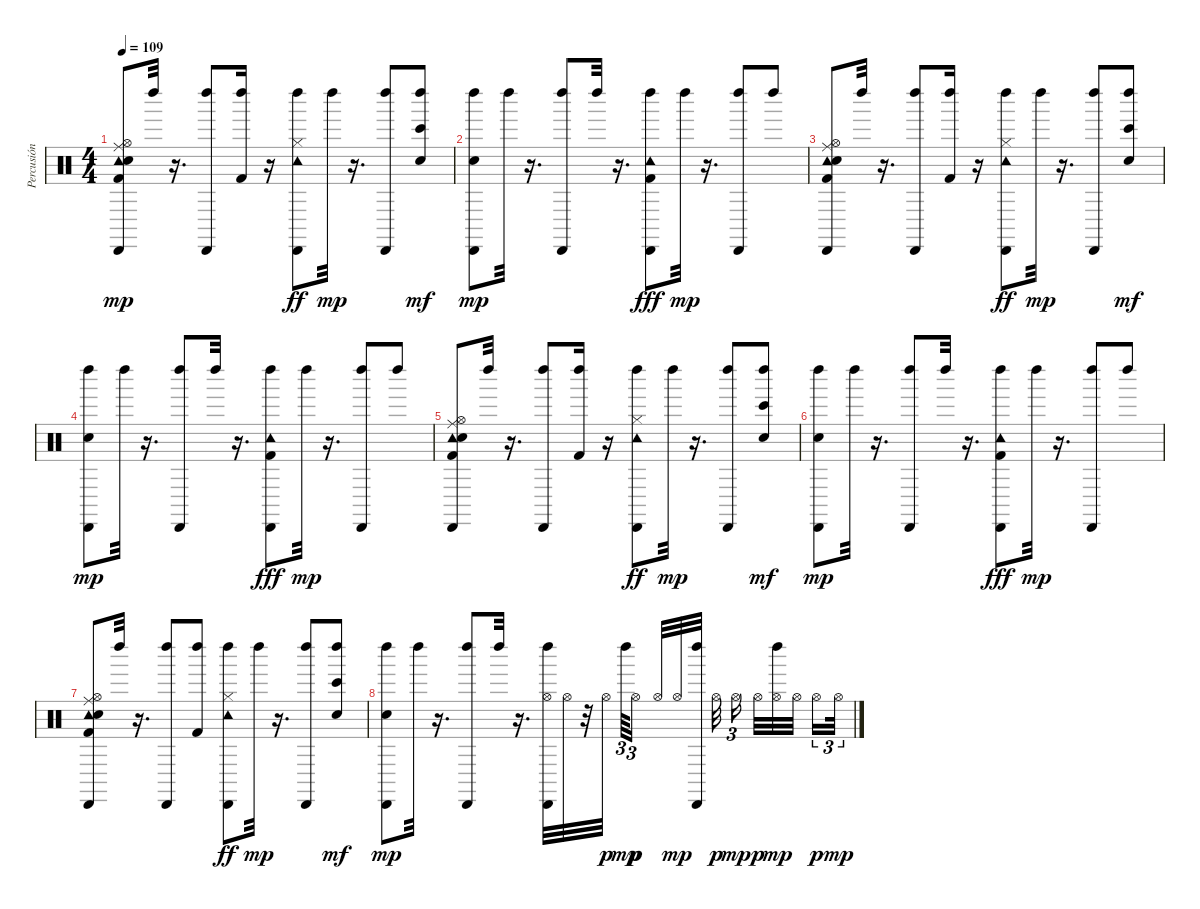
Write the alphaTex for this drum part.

\track ("Percusión" "Percusión") {instrument percussion}
\staff {score}
\articulation defaults
\ts (4 4)
\tempo 109
\clef neutral
\ks c
("Ride (middle)" "Kick (hit) 2" "Hi-Hat (open)" "Tambourine (hit)" "Snare (hit)" "Cabasa (hit)").8{dy mp} "Left Maraca (hit)".32 r.16{d} ("Cabasa (hit)" "Left Maraca (hit)").8 ("Kick (hit) 2" "Left Maraca (hit)").16 r.16 ("Left Maraca (hit)" "Cabasa (hit)" "Hi-Hat (closed)" "Tambourine (hit)").8{dy ff} "Left Maraca (hit)".32{dy mp} r.16{d} ("Cabasa (hit)" "Left Maraca (hit)").8 ("Left Maraca (hit)" "Snare (hit)" "Bongo High (hit)").8{dy mf} |
("Left Maraca (hit)" "Snare (hit)" "Cabasa (hit)").8{dy mp} "Left Maraca (hit)".32 r.16{d} ("Left Maraca (hit)" "Cabasa (hit)").8 "Left Maraca (hit)".32 r.16{d} ("Cabasa (hit)" "Left Maraca (hit)" "Kick (hit) 2" "Tambourine (hit)").8{dy fff} "Left Maraca (hit)".32{dy mp} r.16{d} ("Cabasa (hit)" "Left Maraca (hit)").8 "Left Maraca (hit)".8 |
("Ride (middle)" "Kick (hit) 2" "Hi-Hat (open)" "Tambourine (hit)" "Snare (hit)" "Cabasa (hit)").8 "Left Maraca (hit)".32 r.16{d} ("Cabasa (hit)" "Left Maraca (hit)").8 ("Kick (hit) 2" "Left Maraca (hit)").16 r.16 ("Left Maraca (hit)" "Cabasa (hit)" "Hi-Hat (closed)" "Tambourine (hit)").8{dy ff} "Left Maraca (hit)".32{dy mp} r.16{d} ("Cabasa (hit)" "Left Maraca (hit)").8 ("Left Maraca (hit)" "Snare (hit)" "Bongo High (hit)").8{dy mf} |
("Left Maraca (hit)" "Snare (hit)" "Cabasa (hit)").8{dy mp} "Left Maraca (hit)".32 r.16{d} ("Left Maraca (hit)" "Cabasa (hit)").8 "Left Maraca (hit)".32 r.16{d} ("Cabasa (hit)" "Left Maraca (hit)" "Kick (hit) 2" "Tambourine (hit)").8{dy fff} "Left Maraca (hit)".32{dy mp} r.16{d} ("Cabasa (hit)" "Left Maraca (hit)").8 "Left Maraca (hit)".8 |
("Ride (middle)" "Kick (hit) 2" "Hi-Hat (open)" "Tambourine (hit)" "Snare (hit)" "Cabasa (hit)").8 "Left Maraca (hit)".32 r.16{d} ("Cabasa (hit)" "Left Maraca (hit)").8 ("Kick (hit) 2" "Left Maraca (hit)").16 r.16 ("Left Maraca (hit)" "Cabasa (hit)" "Hi-Hat (closed)" "Tambourine (hit)").8{dy ff} "Left Maraca (hit)".32{dy mp} r.16{d} ("Cabasa (hit)" "Left Maraca (hit)").8 ("Left Maraca (hit)" "Snare (hit)" "Bongo High (hit)").8{dy mf} |
("Left Maraca (hit)" "Snare (hit)" "Cabasa (hit)").8{dy mp} "Left Maraca (hit)".32 r.16{d} ("Left Maraca (hit)" "Cabasa (hit)").8 "Left Maraca (hit)".32 r.16{d} ("Cabasa (hit)" "Left Maraca (hit)" "Kick (hit) 2" "Tambourine (hit)").8{dy fff} "Left Maraca (hit)".32{dy mp} r.16{d} ("Cabasa (hit)" "Left Maraca (hit)").8 "Left Maraca (hit)".8 |
("Ride (middle)" "Kick (hit) 2" "Hi-Hat (open)" "Tambourine (hit)" "Snare (hit)" "Cabasa (hit)").8 "Left Maraca (hit)".32 r.16{d} ("Cabasa (hit)" "Left Maraca (hit)").8 ("Kick (hit) 2" "Left Maraca (hit)").8 ("Left Maraca (hit)" "Cabasa (hit)" "Hi-Hat (closed)" "Tambourine (hit)").8{dy ff} "Left Maraca (hit)".32{dy mp} r.16{d} ("Cabasa (hit)" "Left Maraca (hit)").8 ("Left Maraca (hit)" "Snare (hit)" "Bongo High (hit)").8{dy mf} |
("Left Maraca (hit)" "Snare (hit)" "Cabasa (hit)").8{dy mp} "Left Maraca (hit)".32 r.16{d} ("Left Maraca (hit)" "Cabasa (hit)").8 "Left Maraca (hit)".32 r.16{d} ("Cabasa (hit)" "Left Maraca (hit)" "Hi-Hat (open)").32 "Hi-Hat (open)".32 r.32 "Hi-Hat (open)".32{dy p beam splitsecondary} "Left Maraca (hit)".64{tu (3 2) dy mp} "Hi-Hat (open)".16{tu (3 2) dy p beam splitsecondary} "Hi-Hat (open)".32 "Hi-Hat (open)".32{dy mp} ("Cabasa (hit)" "Left Maraca (hit)").32 "Hi-Hat (open)".32{dy p beam splitsecondary} "Hi-Hat (open)".16{tu (3 2) dy mp beam splitsecondary} "Hi-Hat (open)".32{dy p} ("Hi-Hat (open)" "Left Maraca (hit)").32{dy mp} "Hi-Hat (open)".32{beam splitsecondary} "Hi-Hat (open)".16{tu (3 2) dy p} "Hi-Hat (open)".32{tu (3 2) dy mp}
